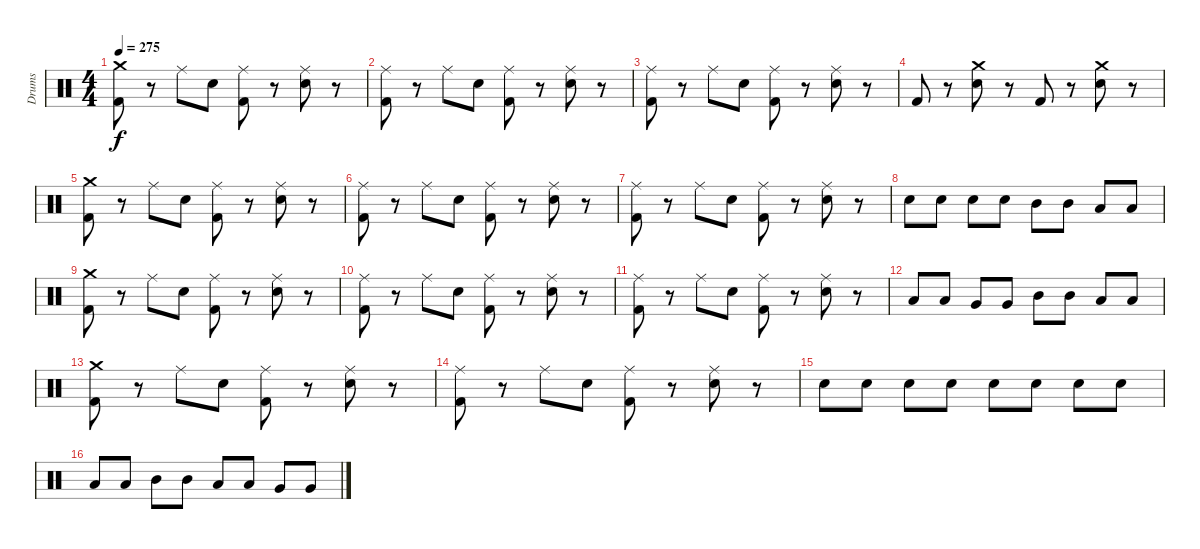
\track ("Drums" "Drums") {instrument percussion}
\staff {score}
\articulation defaults
\ts (4 4)
\tempo 275
\clef neutral
\ks c
("Crash medium (hit)" "Kick (hit) 2").8{dy f} r.8 "Ride (middle)".8 "Electric Snare (hit)".8 ("Ride (middle)" "Kick (hit) 2").8 r.8 ("Ride (middle)" "Electric Snare (hit)").8 r.8 |
("Ride (middle)" "Kick (hit) 2").8 r.8 "Ride (middle)".8 "Electric Snare (hit)".8 ("Ride (middle)" "Kick (hit) 2").8 r.8 ("Ride (middle)" "Electric Snare (hit)").8 r.8 |
("Ride (middle)" "Kick (hit) 2").8 r.8 "Ride (middle)".8 "Electric Snare (hit)".8 ("Ride (middle)" "Kick (hit) 2").8 r.8 ("Ride (middle)" "Electric Snare (hit)").8 r.8 |
"Kick (hit) 2".8 r.8 ("Crash medium (hit)" "Electric Snare (hit)").8 r.8 "Kick (hit) 2".8 r.8 ("Crash medium (hit)" "Electric Snare (hit)").8 r.8 |
("Crash medium (hit)" "Kick (hit) 2").8 r.8 "Ride (middle)".8 "Electric Snare (hit)".8 ("Ride (middle)" "Kick (hit) 2").8 r.8 ("Ride (middle)" "Electric Snare (hit)").8 r.8 |
("Ride (middle)" "Kick (hit) 2").8 r.8 "Ride (middle)".8 "Electric Snare (hit)".8 ("Ride (middle)" "Kick (hit) 2").8 r.8 ("Ride (middle)" "Electric Snare (hit)").8 r.8 |
("Ride (middle)" "Kick (hit) 2").8 r.8 "Ride (middle)".8 "Electric Snare (hit)".8 ("Ride (middle)" "Kick (hit) 2").8 r.8 ("Ride (middle)" "Electric Snare (hit)").8 r.8 |
"Electric Snare (hit)".8 "Electric Snare (hit)".8 "Electric Snare (hit)".8 "Electric Snare (hit)".8 "Mid Tom (hit)".8 "Mid Tom (hit)".8 "Low Tom (hit)".8 "Low Tom (hit)".8 |
("Crash medium (hit)" "Kick (hit) 2").8 r.8 "Ride (middle)".8 "Electric Snare (hit)".8 ("Ride (middle)" "Kick (hit) 2").8 r.8 ("Ride (middle)" "Electric Snare (hit)").8 r.8 |
("Ride (middle)" "Kick (hit) 2").8 r.8 "Ride (middle)".8 "Electric Snare (hit)".8 ("Ride (middle)" "Kick (hit) 2").8 r.8 ("Ride (middle)" "Electric Snare (hit)").8 r.8 |
("Ride (middle)" "Kick (hit) 2").8 r.8 "Ride (middle)".8 "Electric Snare (hit)".8 ("Ride (middle)" "Kick (hit) 2").8 r.8 ("Ride (middle)" "Electric Snare (hit)").8 r.8 |
"Low Tom (hit)".8 "Low Tom (hit)".8 "Very Low Tom (hit)".8 "Very Low Tom (hit)".8 "Mid Tom (hit)".8 "Mid Tom (hit)".8 "Low Tom (hit)".8 "Low Tom (hit)".8 |
("Crash medium (hit)" "Kick (hit) 2").8 r.8 "Ride (middle)".8 "Electric Snare (hit)".8 ("Ride (middle)" "Kick (hit) 2").8 r.8 ("Ride (middle)" "Electric Snare (hit)").8 r.8 |
("Ride (middle)" "Kick (hit) 2").8 r.8 "Ride (middle)".8 "Electric Snare (hit)".8 ("Ride (middle)" "Kick (hit) 2").8 r.8 ("Ride (middle)" "Electric Snare (hit)").8 r.8 |
"Electric Snare (hit)".8 "Electric Snare (hit)".8 "Electric Snare (hit)".8 "Electric Snare (hit)".8 "Electric Snare (hit)".8 "Electric Snare (hit)".8 "Electric Snare (hit)".8 "Electric Snare (hit)".8 |
"Low Tom (hit)".8 "Low Tom (hit)".8 "Mid Tom (hit)".8 "Mid Tom (hit)".8 "Low Tom (hit)".8 "Low Tom (hit)".8 "Very Low Tom (hit)".8 "Very Low Tom (hit)".8
